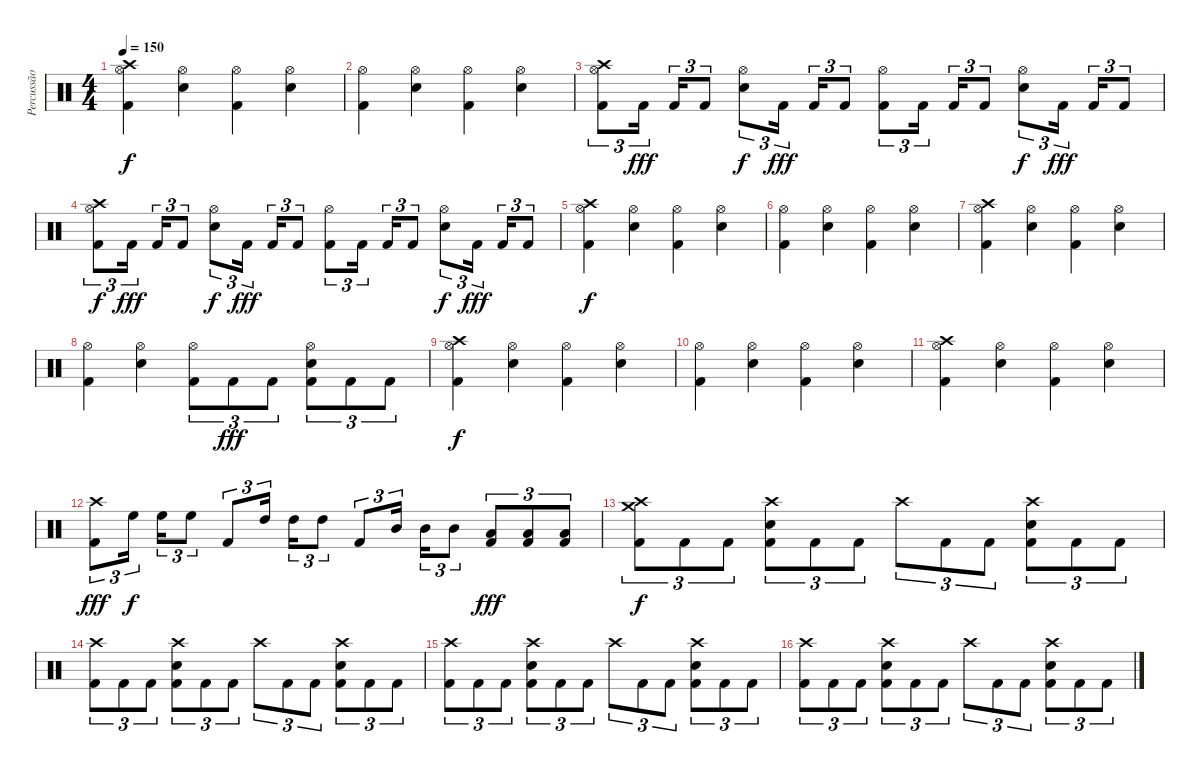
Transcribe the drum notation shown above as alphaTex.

\track ("Percussão" "Percussão") {instrument percussion}
\staff {score}
\articulation defaults
\ts (4 4)
\tempo 150
\clef neutral
\ks c
("Crash high (hit)" "Hi-Hat (open)" "Kick (hit) 2").4{dy f} ("Hi-Hat (open)" "Snare (hit) 2").4 ("Hi-Hat (open)" "Kick (hit) 2").4 ("Hi-Hat (open)" "Snare (hit) 2").4 |
("Hi-Hat (open)" "Kick (hit) 2").4 ("Hi-Hat (open)" "Snare (hit) 2").4 ("Hi-Hat (open)" "Kick (hit) 2").4 ("Hi-Hat (open)" "Snare (hit) 2").4 |
("Crash high (hit)" "Hi-Hat (open)" "Kick (hit) 2").8{tu (3 2)} "Kick (hit) 2".16{tu (3 2) dy fff beam splitsecondary} "Kick (hit) 2".16{tu (3 2)} "Kick (hit) 2".8{tu (3 2)} ("Hi-Hat (open)" "Snare (hit) 2").8{tu (3 2) dy f} "Kick (hit) 2".16{tu (3 2) dy fff beam splitsecondary} "Kick (hit) 2".16{tu (3 2)} "Kick (hit) 2".8{tu (3 2)} ("Hi-Hat (open)" "Kick (hit) 2").8{tu (3 2)} "Kick (hit) 2".16{tu (3 2) beam splitsecondary} "Kick (hit) 2".16{tu (3 2)} "Kick (hit) 2".8{tu (3 2)} ("Hi-Hat (open)" "Snare (hit) 2").8{tu (3 2) dy f} "Kick (hit) 2".16{tu (3 2) dy fff beam splitsecondary} "Kick (hit) 2".16{tu (3 2)} "Kick (hit) 2".8{tu (3 2)} |
("Crash high (hit)" "Hi-Hat (open)" "Kick (hit) 2").8{tu (3 2) dy f} "Kick (hit) 2".16{tu (3 2) dy fff beam splitsecondary} "Kick (hit) 2".16{tu (3 2)} "Kick (hit) 2".8{tu (3 2)} ("Hi-Hat (open)" "Snare (hit) 2").8{tu (3 2) dy f} "Kick (hit) 2".16{tu (3 2) dy fff beam splitsecondary} "Kick (hit) 2".16{tu (3 2)} "Kick (hit) 2".8{tu (3 2)} ("Hi-Hat (open)" "Kick (hit) 2").8{tu (3 2)} "Kick (hit) 2".16{tu (3 2) beam splitsecondary} "Kick (hit) 2".16{tu (3 2)} "Kick (hit) 2".8{tu (3 2)} ("Hi-Hat (open)" "Snare (hit) 2").8{tu (3 2) dy f} "Kick (hit) 2".16{tu (3 2) dy fff beam splitsecondary} "Kick (hit) 2".16{tu (3 2)} "Kick (hit) 2".8{tu (3 2)} |
("Crash high (hit)" "Hi-Hat (open)" "Kick (hit) 2").4{dy f} ("Hi-Hat (open)" "Snare (hit) 2").4 ("Hi-Hat (open)" "Kick (hit) 2").4 ("Hi-Hat (open)" "Snare (hit) 2").4 |
("Hi-Hat (open)" "Kick (hit) 2").4 ("Hi-Hat (open)" "Snare (hit) 2").4 ("Hi-Hat (open)" "Kick (hit) 2").4 ("Hi-Hat (open)" "Snare (hit) 2").4 |
("Crash high (hit)" "Hi-Hat (open)" "Kick (hit) 2").4 ("Hi-Hat (open)" "Snare (hit) 2").4 ("Hi-Hat (open)" "Kick (hit) 2").4 ("Hi-Hat (open)" "Snare (hit) 2").4 |
("Hi-Hat (open)" "Kick (hit) 2").4 ("Hi-Hat (open)" "Snare (hit) 2").4 ("Hi-Hat (open)" "Kick (hit) 2").8{tu (3 2)} "Kick (hit) 2".8{tu (3 2) dy fff} "Kick (hit) 2".8{tu (3 2)} ("Hi-Hat (open)" "Snare (hit) 2" "Kick (hit) 2").8{tu (3 2)} "Kick (hit) 2".8{tu (3 2)} "Kick (hit) 2".8{tu (3 2)} |
("Crash high (hit)" "Hi-Hat (open)" "Kick (hit) 2").4{dy f} ("Hi-Hat (open)" "Snare (hit) 2").4 ("Hi-Hat (open)" "Kick (hit) 2").4 ("Hi-Hat (open)" "Snare (hit) 2").4 |
("Hi-Hat (open)" "Kick (hit) 2").4 ("Hi-Hat (open)" "Snare (hit) 2").4 ("Hi-Hat (open)" "Kick (hit) 2").4 ("Hi-Hat (open)" "Snare (hit) 2").4 |
("Crash high (hit)" "Hi-Hat (open)" "Kick (hit) 2").4 ("Hi-Hat (open)" "Snare (hit) 2").4 ("Hi-Hat (open)" "Kick (hit) 2").4 ("Hi-Hat (open)" "Snare (hit) 2").4 |
("Crash high (hit)" "Kick (hit) 2").8{tu (3 2) dy fff} "High Floor Tom (hit)".16{tu (3 2) dy f beam splitsecondary} "High Floor Tom (hit)".16{tu (3 2)} "High Floor Tom (hit)".8{tu (3 2)} "Kick (hit) 2".8{tu (3 2)} "High Tom (hit)".16{tu (3 2) beam splitsecondary} "High Tom (hit)".16{tu (3 2)} "High Tom (hit)".8{tu (3 2)} "Kick (hit) 2".8{tu (3 2)} "Mid Tom (hit)".16{tu (3 2) beam splitsecondary} "Mid Tom (hit)".16{tu (3 2)} "Mid Tom (hit)".8{tu (3 2)} ("Low Tom (hit)" "Kick (hit) 2").8{tu (3 2) dy fff} ("Low Tom (hit)" "Kick (hit) 2").8{tu (3 2)} ("Low Tom (hit)" "Kick (hit) 2").8{tu (3 2)} |
("Crash high (hit)" "Crash medium (hit)" "Kick (hit) 2").8{tu (3 2) dy f} "Kick (hit) 2".8{tu (3 2)} "Kick (hit) 2".8{tu (3 2)} ("Crash high (hit)" "Snare (hit) 2" "Kick (hit) 2").8{tu (3 2)} "Kick (hit) 2".8{tu (3 2)} "Kick (hit) 2".8{tu (3 2)} "Crash high (hit)".8{tu (3 2)} "Kick (hit) 2".8{tu (3 2)} "Kick (hit) 2".8{tu (3 2)} ("Crash high (hit)" "Snare (hit) 2" "Kick (hit) 2").8{tu (3 2)} "Kick (hit) 2".8{tu (3 2)} "Kick (hit) 2".8{tu (3 2)} |
("Crash high (hit)" "Kick (hit) 2").8{tu (3 2)} "Kick (hit) 2".8{tu (3 2)} "Kick (hit) 2".8{tu (3 2)} ("Crash high (hit)" "Snare (hit) 2" "Kick (hit) 2").8{tu (3 2)} "Kick (hit) 2".8{tu (3 2)} "Kick (hit) 2".8{tu (3 2)} "Crash high (hit)".8{tu (3 2)} "Kick (hit) 2".8{tu (3 2)} "Kick (hit) 2".8{tu (3 2)} ("Crash high (hit)" "Snare (hit) 2" "Kick (hit) 2").8{tu (3 2)} "Kick (hit) 2".8{tu (3 2)} "Kick (hit) 2".8{tu (3 2)} |
("Crash high (hit)" "Kick (hit) 2").8{tu (3 2)} "Kick (hit) 2".8{tu (3 2)} "Kick (hit) 2".8{tu (3 2)} ("Crash high (hit)" "Snare (hit) 2" "Kick (hit) 2").8{tu (3 2)} "Kick (hit) 2".8{tu (3 2)} "Kick (hit) 2".8{tu (3 2)} "Crash high (hit)".8{tu (3 2)} "Kick (hit) 2".8{tu (3 2)} "Kick (hit) 2".8{tu (3 2)} ("Crash high (hit)" "Snare (hit) 2" "Kick (hit) 2").8{tu (3 2)} "Kick (hit) 2".8{tu (3 2)} "Kick (hit) 2".8{tu (3 2)} |
("Crash high (hit)" "Kick (hit) 2").8{tu (3 2)} "Kick (hit) 2".8{tu (3 2)} "Kick (hit) 2".8{tu (3 2)} ("Crash high (hit)" "Snare (hit) 2" "Kick (hit) 2").8{tu (3 2)} "Kick (hit) 2".8{tu (3 2)} "Kick (hit) 2".8{tu (3 2)} "Crash high (hit)".8{tu (3 2)} "Kick (hit) 2".8{tu (3 2)} "Kick (hit) 2".8{tu (3 2)} ("Crash high (hit)" "Snare (hit) 2" "Kick (hit) 2").8{tu (3 2)} "Kick (hit) 2".8{tu (3 2)} "Kick (hit) 2".8{tu (3 2)}
